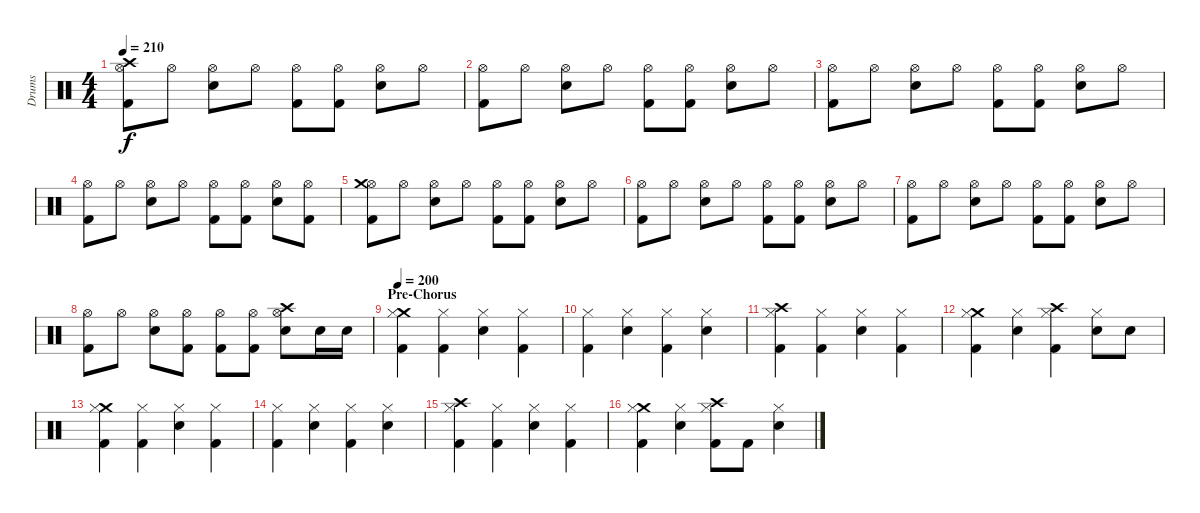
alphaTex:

\track ("Drums" "Drums") {instrument percussion}
\staff {score}
\articulation defaults
\ts (4 4)
\tempo 210
\clef neutral
\ks c
("Hi-Hat (open)" "Crash high (hit)" "Kick (hit) 2").8{dy f} "Hi-Hat (open)".8 ("Hi-Hat (open)" "Electric Snare (hit)").8 "Hi-Hat (open)".8 ("Hi-Hat (open)" "Kick (hit) 2").8 ("Hi-Hat (open)" "Kick (hit) 2").8 ("Hi-Hat (open)" "Electric Snare (hit)").8 "Hi-Hat (open)".8 |
("Hi-Hat (open)" "Kick (hit) 2").8 "Hi-Hat (open)".8 ("Hi-Hat (open)" "Electric Snare (hit)").8 "Hi-Hat (open)".8 ("Hi-Hat (open)" "Kick (hit) 2").8 ("Hi-Hat (open)" "Kick (hit) 2").8 ("Hi-Hat (open)" "Electric Snare (hit)").8 "Hi-Hat (open)".8 |
("Hi-Hat (open)" "Kick (hit) 2").8 "Hi-Hat (open)".8 ("Hi-Hat (open)" "Electric Snare (hit)").8 "Hi-Hat (open)".8 ("Hi-Hat (open)" "Kick (hit) 2").8 ("Hi-Hat (open)" "Kick (hit) 2").8 ("Hi-Hat (open)" "Electric Snare (hit)").8 "Hi-Hat (open)".8 |
("Hi-Hat (open)" "Kick (hit) 2").8 "Hi-Hat (open)".8 ("Hi-Hat (open)" "Electric Snare (hit)").8 "Hi-Hat (open)".8 ("Hi-Hat (open)" "Kick (hit) 2").8 ("Hi-Hat (open)" "Kick (hit) 2").8 ("Hi-Hat (open)" "Electric Snare (hit)").8 ("Hi-Hat (open)" "Kick (hit) 2").8 |
("Hi-Hat (open)" "Crash medium (hit)" "Kick (hit) 2").8 "Hi-Hat (open)".8 ("Hi-Hat (open)" "Electric Snare (hit)").8 "Hi-Hat (open)".8 ("Hi-Hat (open)" "Kick (hit) 2").8 ("Hi-Hat (open)" "Kick (hit) 2").8 ("Hi-Hat (open)" "Electric Snare (hit)").8 "Hi-Hat (open)".8 |
("Hi-Hat (open)" "Kick (hit) 2").8 "Hi-Hat (open)".8 ("Hi-Hat (open)" "Electric Snare (hit)").8 "Hi-Hat (open)".8 ("Hi-Hat (open)" "Kick (hit) 2").8 ("Hi-Hat (open)" "Kick (hit) 2").8 ("Hi-Hat (open)" "Electric Snare (hit)").8 "Hi-Hat (open)".8 |
("Hi-Hat (open)" "Kick (hit) 2").8 "Hi-Hat (open)".8 ("Hi-Hat (open)" "Electric Snare (hit)").8 "Hi-Hat (open)".8 ("Hi-Hat (open)" "Kick (hit) 2").8 ("Hi-Hat (open)" "Kick (hit) 2").8 ("Hi-Hat (open)" "Electric Snare (hit)").8 "Hi-Hat (open)".8 |
("Hi-Hat (open)" "Kick (hit) 2").8 "Hi-Hat (open)".8 ("Hi-Hat (open)" "Electric Snare (hit)").8 ("Hi-Hat (open)" "Kick (hit) 2").8 ("Hi-Hat (open)" "Kick (hit) 2").8 ("Hi-Hat (open)" "Kick (hit) 2").8 ("Hi-Hat (open)" "Crash high (hit)" "Electric Snare (hit)").8 "Electric Snare (hit)".16 "Electric Snare (hit)".16 |
\section ("" "Pre-Chorus")
\tempo 200
("Crash medium (hit)" "Hi-Hat (closed)" "Kick (hit) 2").4 ("Hi-Hat (closed)" "Kick (hit) 2").4 ("Hi-Hat (closed)" "Electric Snare (hit)").4 ("Hi-Hat (closed)" "Kick (hit) 2").4 |
("Hi-Hat (closed)" "Kick (hit) 2").4 ("Hi-Hat (closed)" "Electric Snare (hit)").4 ("Hi-Hat (closed)" "Kick (hit) 2").4 ("Hi-Hat (closed)" "Electric Snare (hit)").4 |
("Crash high (hit)" "Hi-Hat (closed)" "Kick (hit) 2").4 ("Hi-Hat (closed)" "Kick (hit) 2").4 ("Hi-Hat (closed)" "Electric Snare (hit)").4 ("Hi-Hat (closed)" "Kick (hit) 2").4 |
("Crash medium (hit)" "Hi-Hat (closed)" "Kick (hit) 2").4 ("Hi-Hat (closed)" "Electric Snare (hit)").4 ("Crash high (hit)" "Hi-Hat (closed)" "Kick (hit) 2").4 ("Hi-Hat (closed)" "Electric Snare (hit)").8 "Electric Snare (hit)".8 |
("Crash medium (hit)" "Hi-Hat (closed)" "Kick (hit) 2").4 ("Hi-Hat (closed)" "Kick (hit) 2").4 ("Hi-Hat (closed)" "Electric Snare (hit)").4 ("Hi-Hat (closed)" "Kick (hit) 2").4 |
("Hi-Hat (closed)" "Kick (hit) 2").4 ("Hi-Hat (closed)" "Electric Snare (hit)").4 ("Hi-Hat (closed)" "Kick (hit) 2").4 ("Hi-Hat (closed)" "Electric Snare (hit)").4 |
("Crash high (hit)" "Hi-Hat (closed)" "Kick (hit) 2").4 ("Hi-Hat (closed)" "Kick (hit) 2").4 ("Hi-Hat (closed)" "Electric Snare (hit)").4 ("Hi-Hat (closed)" "Kick (hit) 2").4 |
("Crash medium (hit)" "Hi-Hat (closed)" "Kick (hit) 2").4 ("Hi-Hat (closed)" "Electric Snare (hit)").4 ("Crash high (hit)" "Hi-Hat (closed)" "Kick (hit) 2").8 "Kick (hit) 2".8 ("Hi-Hat (closed)" "Electric Snare (hit)").4
